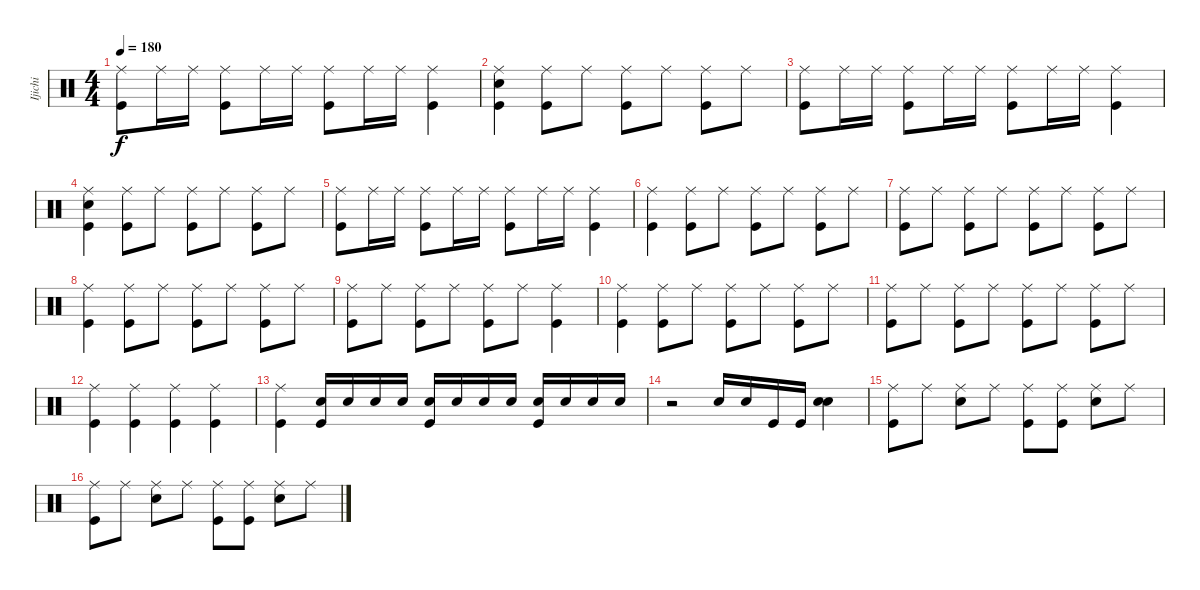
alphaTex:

\track ("Ijichi" "Ijichi") {instrument percussion}
\staff {score}
\articulation defaults
\ts (4 4)
\tempo 180
\clef neutral
\ks c
("Ride (middle)" "Kick (hit)").8{dy f} "Ride (middle)".16 "Ride (middle)".16 ("Ride (middle)" "Kick (hit)").8 "Ride (middle)".16 "Ride (middle)".16 ("Ride (middle)" "Kick (hit)").8 "Ride (middle)".16 "Ride (middle)".16 ("Ride (middle)" "Kick (hit)").4 |
("Ride (middle)" "Snare (hit) 2" "Kick (hit)").4 ("Ride (middle)" "Kick (hit)").8 "Ride (middle)".8 ("Ride (middle)" "Kick (hit)").8 "Ride (middle)".8 ("Ride (middle)" "Kick (hit)").8 "Ride (middle)".8 |
("Ride (middle)" "Kick (hit)").8 "Ride (middle)".16 "Ride (middle)".16 ("Ride (middle)" "Kick (hit)").8 "Ride (middle)".16 "Ride (middle)".16 ("Ride (middle)" "Kick (hit)").8 "Ride (middle)".16 "Ride (middle)".16 ("Ride (middle)" "Kick (hit)").4 |
("Ride (middle)" "Snare (hit) 2" "Kick (hit)").4 ("Ride (middle)" "Kick (hit)").8 "Ride (middle)".8 ("Ride (middle)" "Kick (hit)").8 "Ride (middle)".8 ("Ride (middle)" "Kick (hit)").8 "Ride (middle)".8 |
("Ride (middle)" "Kick (hit)").8 "Ride (middle)".16 "Ride (middle)".16 ("Ride (middle)" "Kick (hit)").8 "Ride (middle)".16 "Ride (middle)".16 ("Ride (middle)" "Kick (hit)").8 "Ride (middle)".16 "Ride (middle)".16 ("Ride (middle)" "Kick (hit)").4 |
("Ride (middle)" "Kick (hit)").4 ("Ride (middle)" "Kick (hit)").8 "Ride (middle)".8 ("Ride (middle)" "Kick (hit)").8 "Ride (middle)".8 ("Ride (middle)" "Kick (hit)").8 "Ride (middle)".8 |
("Ride (middle)" "Kick (hit)").8 "Ride (middle)".8 ("Ride (middle)" "Kick (hit)").8 "Ride (middle)".8 ("Ride (middle)" "Kick (hit)").8 "Ride (middle)".8 ("Ride (middle)" "Kick (hit)").8 "Ride (middle)".8 |
("Ride (middle)" "Kick (hit)").4 ("Ride (middle)" "Kick (hit)").8 "Ride (middle)".8 ("Ride (middle)" "Kick (hit)").8 "Ride (middle)".8 ("Ride (middle)" "Kick (hit)").8 "Ride (middle)".8 |
("Ride (middle)" "Kick (hit)").8 "Ride (middle)".8 ("Ride (middle)" "Kick (hit)").8 "Ride (middle)".8 ("Ride (middle)" "Kick (hit)").8 "Ride (middle)".8 ("Ride (middle)" "Kick (hit)").4 |
("Ride (middle)" "Kick (hit)").4 ("Ride (middle)" "Kick (hit)").8 "Ride (middle)".8 ("Ride (middle)" "Kick (hit)").8 "Ride (middle)".8 ("Ride (middle)" "Kick (hit)").8 "Ride (middle)".8 |
("Ride (middle)" "Kick (hit)").8 "Ride (middle)".8 ("Ride (middle)" "Kick (hit)").8 "Ride (middle)".8 ("Ride (middle)" "Kick (hit)").8 "Ride (middle)".8 ("Ride (middle)" "Kick (hit)").8 "Ride (middle)".8 |
("Ride (middle)" "Kick (hit)").4 ("Ride (middle)" "Kick (hit)").4 ("Ride (middle)" "Kick (hit)").4 ("Ride (middle)" "Kick (hit)").4 |
("Ride (middle)" "Kick (hit)").4 ("Snare (hit) 2" "Kick (hit)").16 "Snare (hit) 2".16 "Snare (hit) 2".16 "Snare (hit) 2".16 ("Snare (hit) 2" "Kick (hit)").16 "Snare (hit) 2".16 "Snare (hit) 2".16 "Snare (hit) 2".16 ("Snare (hit) 2" "Kick (hit)").16 "Snare (hit) 2".16 "Snare (hit) 2".16 "Snare (hit) 2".16 |
r.2 "Snare (hit) 2".16 "Snare (hit) 2".16 "Kick (hit)".16 "Kick (hit)".16 ("Snare (hit) 2" "Snare (hit) 2").4 |
("Ride (middle)" "Kick (hit)").8 "Ride (middle)".8 ("Ride (middle)" "Snare (hit) 2").8 "Ride (middle)".8 ("Ride (middle)" "Kick (hit)").8 ("Ride (middle)" "Kick (hit)").8 ("Ride (middle)" "Snare (hit) 2").8 "Ride (middle)".8 |
("Ride (middle)" "Kick (hit)").8 "Ride (middle)".8 ("Ride (middle)" "Snare (hit) 2").8 "Ride (middle)".8 ("Ride (middle)" "Kick (hit)").8 ("Ride (middle)" "Kick (hit)").8 ("Ride (middle)" "Snare (hit) 2").8 "Ride (middle)".8
